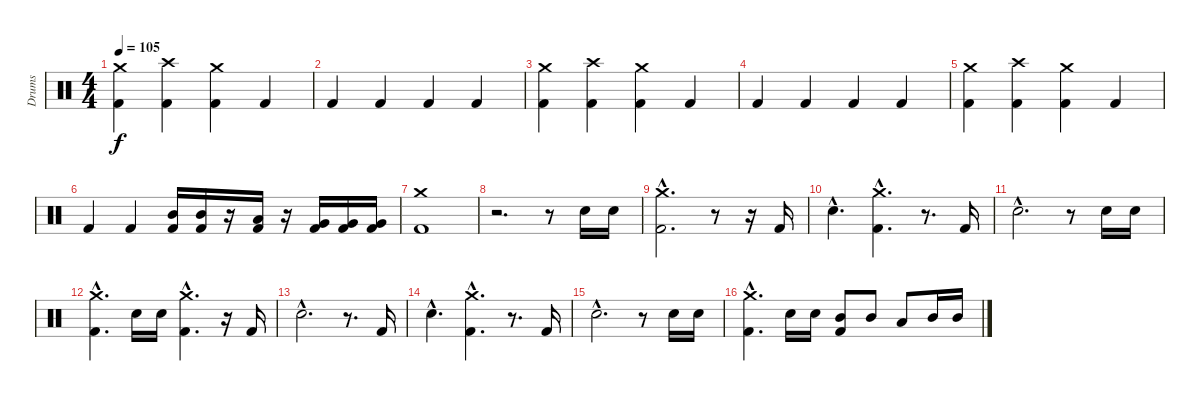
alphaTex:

\track ("Drums" "Drums") {instrument percussion}
\staff {score}
\articulation defaults
\ts (4 4)
\tempo 105
\clef neutral
\ks c
("Kick (hit) 2" "Crash medium (hit)").4{dy f} ("Kick (hit) 2" "Crash high (hit)").4 ("Kick (hit) 2" "Crash medium (hit)").4 "Kick (hit) 2".4 |
"Kick (hit) 2".4 "Kick (hit) 2".4 "Kick (hit) 2".4 "Kick (hit) 2".4 |
("Kick (hit) 2" "Crash medium (hit)").4 ("Kick (hit) 2" "Crash high (hit)").4 ("Kick (hit) 2" "Crash medium (hit)").4 "Kick (hit) 2".4 |
"Kick (hit) 2".4 "Kick (hit) 2".4 "Kick (hit) 2".4 "Kick (hit) 2".4 |
("Kick (hit) 2" "Crash medium (hit)").4 ("Kick (hit) 2" "Crash high (hit)").4 ("Kick (hit) 2" "Crash medium (hit)").4 "Kick (hit) 2".4 |
"Kick (hit) 2".4 "Kick (hit) 2".4 ("Kick (hit) 2" "Mid Tom (hit)").16 ("Kick (hit) 2" "Mid Tom (hit)").16 r.16 ("Kick (hit) 2" "Low Tom (hit)").16 r.16 ("Kick (hit) 2" "Very Low Tom (hit)").16 ("Kick (hit) 2" "Very Low Tom (hit)").16 ("Kick (hit) 2" "Very Low Tom (hit)").16 |
("Kick (hit) 2" "Crash medium (hit)").1 |
r.2{d} r.8 "Electric Snare (hit)".16 "Electric Snare (hit)".16 |
("Kick (hit) 2"{hac} "Crash medium (hit)"{hac}).2{d} r.8 r.16 "Kick (hit) 2".16 |
"Electric Snare (hit)"{hac}.4{d} ("Kick (hit) 2"{hac} "Crash medium (hit)"{hac}).4{d} r.8{d} "Kick (hit) 2".16 |
"Electric Snare (hit)"{hac}.2{d} r.8 "Electric Snare (hit)".16 "Electric Snare (hit)".16 |
("Kick (hit) 2"{hac} "Crash medium (hit)"{hac}).4{d} "Electric Snare (hit)".16 "Electric Snare (hit)".16 ("Kick (hit) 2"{hac} "Crash medium (hit)"{hac}).4{d} r.16 "Kick (hit) 2".16 |
"Electric Snare (hit)"{hac}.2{d} r.8{d} "Kick (hit) 2".16 |
"Electric Snare (hit)"{hac}.4{d} ("Kick (hit) 2"{hac} "Crash medium (hit)"{hac}).4{d} r.8{d} "Kick (hit) 2".16 |
"Electric Snare (hit)"{hac}.2{d} r.8 "Electric Snare (hit)".16 "Electric Snare (hit)".16 |
("Kick (hit) 2"{hac} "Crash medium (hit)"{hac}).4{d} "Electric Snare (hit)".16 "Electric Snare (hit)".16 ("Kick (hit) 2" "Mid Tom (hit)").8 "Mid Tom (hit)".8 "Low Tom (hit)".8 "Mid Tom (hit)".16 "Mid Tom (hit)".16
